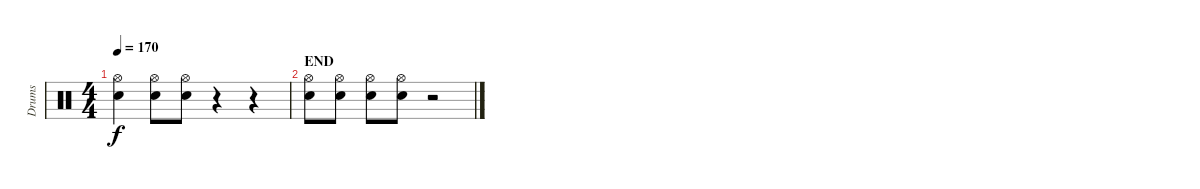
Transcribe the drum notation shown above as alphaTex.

\track ("Drums" "Drums") {instrument percussion}
\staff {score}
\articulation defaults
\ts (4 4)
\tempo 170
\clef neutral
\ks c
("Hi-Hat (open)" "Electric Snare (hit)").4{dy f} ("Hi-Hat (open)" "Electric Snare (hit)").8 ("Hi-Hat (open)" "Electric Snare (hit)").8 r.4 r.4 |
\section ("" "END")
("Hi-Hat (open)" "Electric Snare (hit)").8 ("Hi-Hat (open)" "Electric Snare (hit)").8 ("Hi-Hat (open)" "Electric Snare (hit)").8 ("Hi-Hat (open)" "Electric Snare (hit)").8 r.2
